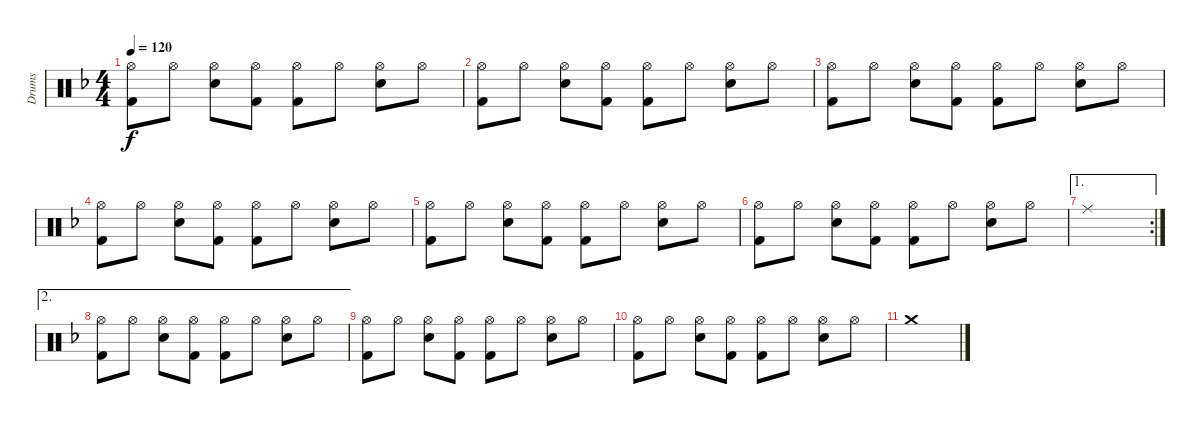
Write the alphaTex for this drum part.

\track ("Drums" "Drums") {instrument percussion}
\staff {score}
\articulation defaults
\ts (4 4)
\tempo 120
\clef neutral
\ks f
("Hi-Hat (open)" "Kick (hit) 2").8{dy f} "Hi-Hat (open)".8 ("Hi-Hat (open)" "Snare (hit) 2").8 ("Hi-Hat (open)" "Kick (hit) 2").8 ("Hi-Hat (open)" "Kick (hit) 2").8 "Hi-Hat (open)".8 ("Hi-Hat (open)" "Snare (hit) 2").8 "Hi-Hat (open)".8 |
("Hi-Hat (open)" "Kick (hit) 2").8 "Hi-Hat (open)".8 ("Hi-Hat (open)" "Snare (hit) 2").8 ("Hi-Hat (open)" "Kick (hit) 2").8 ("Hi-Hat (open)" "Kick (hit) 2").8 "Hi-Hat (open)".8 ("Hi-Hat (open)" "Snare (hit) 2").8 "Hi-Hat (open)".8 |
("Hi-Hat (open)" "Kick (hit) 2").8 "Hi-Hat (open)".8 ("Hi-Hat (open)" "Snare (hit) 2").8 ("Hi-Hat (open)" "Kick (hit) 2").8 ("Hi-Hat (open)" "Kick (hit) 2").8 "Hi-Hat (open)".8 ("Hi-Hat (open)" "Snare (hit) 2").8 "Hi-Hat (open)".8 |
("Hi-Hat (open)" "Kick (hit) 2").8 "Hi-Hat (open)".8 ("Hi-Hat (open)" "Snare (hit) 2").8 ("Hi-Hat (open)" "Kick (hit) 2").8 ("Hi-Hat (open)" "Kick (hit) 2").8 "Hi-Hat (open)".8 ("Hi-Hat (open)" "Snare (hit) 2").8 "Hi-Hat (open)".8 |
("Hi-Hat (open)" "Kick (hit) 2").8 "Hi-Hat (open)".8 ("Hi-Hat (open)" "Snare (hit) 2").8 ("Hi-Hat (open)" "Kick (hit) 2").8 ("Hi-Hat (open)" "Kick (hit) 2").8 "Hi-Hat (open)".8 ("Hi-Hat (open)" "Snare (hit) 2").8 "Hi-Hat (open)".8 |
("Hi-Hat (open)" "Kick (hit) 2").8 "Hi-Hat (open)".8 ("Hi-Hat (open)" "Snare (hit) 2").8 ("Hi-Hat (open)" "Kick (hit) 2").8 ("Hi-Hat (open)" "Kick (hit) 2").8 "Hi-Hat (open)".8 ("Hi-Hat (open)" "Snare (hit) 2").8 "Hi-Hat (open)".8 |
\ae 1
\rc 2 "Ride (middle)".1
|
\ae 2
("Hi-Hat (open)" "Kick (hit) 2").8 "Hi-Hat (open)".8 ("Hi-Hat (open)" "Snare (hit) 2").8 ("Hi-Hat (open)" "Kick (hit) 2").8 ("Hi-Hat (open)" "Kick (hit) 2").8 "Hi-Hat (open)".8 ("Hi-Hat (open)" "Snare (hit) 2").8 "Hi-Hat (open)".8 |
("Hi-Hat (open)" "Kick (hit) 2").8 "Hi-Hat (open)".8 ("Hi-Hat (open)" "Snare (hit) 2").8 ("Hi-Hat (open)" "Kick (hit) 2").8 ("Hi-Hat (open)" "Kick (hit) 2").8 "Hi-Hat (open)".8 ("Hi-Hat (open)" "Snare (hit) 2").8 "Hi-Hat (open)".8 |
("Hi-Hat (open)" "Kick (hit) 2").8 "Hi-Hat (open)".8 ("Hi-Hat (open)" "Snare (hit) 2").8 ("Hi-Hat (open)" "Kick (hit) 2").8 ("Hi-Hat (open)" "Kick (hit) 2").8 "Hi-Hat (open)".8 ("Hi-Hat (open)" "Snare (hit) 2").8 "Hi-Hat (open)".8 |
"Crash medium (hit)".1
